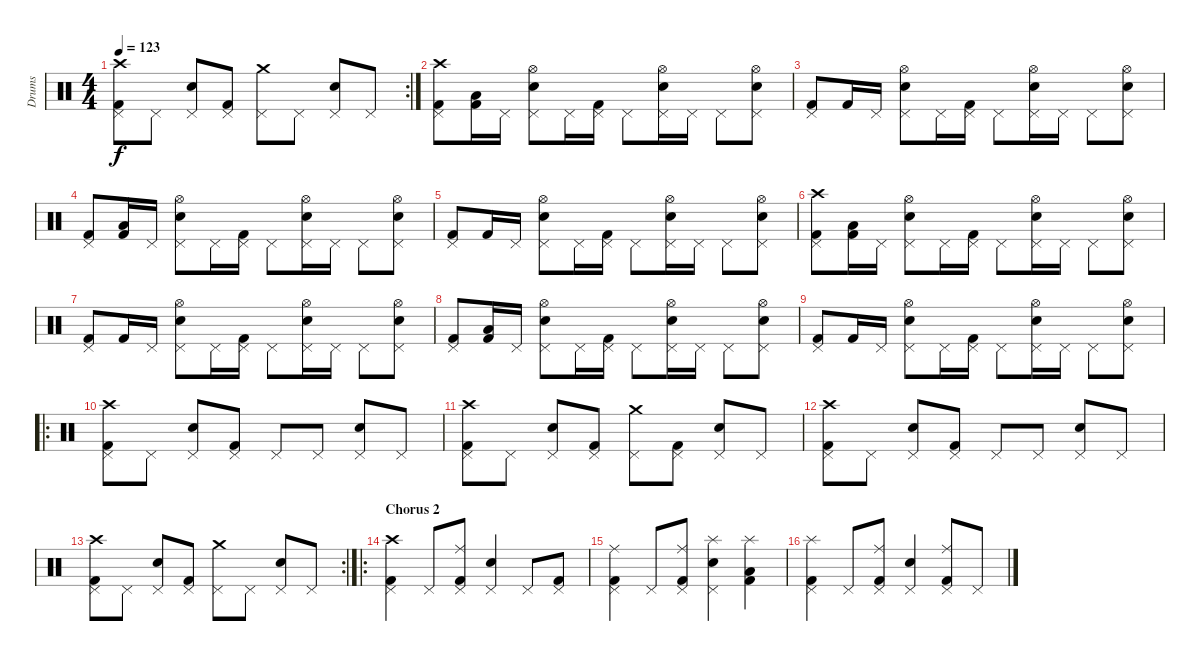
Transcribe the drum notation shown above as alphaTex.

\track ("Drums" "Drums") {instrument percussion}
\staff {score}
\articulation defaults
\rc 2
\ts (4 4)
\tempo 123
\clef neutral
\ks c
("Kick (hit) 2" "Pedal Hi-Hat (hit)" "Crash high (hit)").8{dy f} "Pedal Hi-Hat (hit)".8 ("Snare (hit) 2" "Pedal Hi-Hat (hit)").8 ("Kick (hit) 2" "Pedal Hi-Hat (hit)").8 ("Pedal Hi-Hat (hit)" "Crash medium (hit)").8 "Pedal Hi-Hat (hit)".8 ("Snare (hit) 2" "Pedal Hi-Hat (hit)").8 "Pedal Hi-Hat (hit)".8 |
("Kick (hit) 2" "Pedal Hi-Hat (hit)" "Crash high (hit)").8 ("Kick (hit) 2" "Low Tom (hit)").16 "Pedal Hi-Hat (hit)".16 ("Snare (hit) 2" "Pedal Hi-Hat (hit)" "Hi-Hat (open)").8 "Pedal Hi-Hat (hit)".16 ("Kick (hit) 2" "Pedal Hi-Hat (hit)").16 "Pedal Hi-Hat (hit)".8 ("Snare (hit) 2" "Pedal Hi-Hat (hit)" "Hi-Hat (open)").16 "Pedal Hi-Hat (hit)".16 "Pedal Hi-Hat (hit)".8 ("Snare (hit) 2" "Pedal Hi-Hat (hit)" "Hi-Hat (open)").8 |
("Kick (hit) 2" "Pedal Hi-Hat (hit)").8 "Kick (hit) 2".16 "Pedal Hi-Hat (hit)".16 ("Snare (hit) 2" "Pedal Hi-Hat (hit)" "Hi-Hat (open)").8 "Pedal Hi-Hat (hit)".16 ("Kick (hit) 2" "Pedal Hi-Hat (hit)").16 "Pedal Hi-Hat (hit)".8 ("Snare (hit) 2" "Pedal Hi-Hat (hit)" "Hi-Hat (open)").16 "Pedal Hi-Hat (hit)".16 "Pedal Hi-Hat (hit)".8 ("Snare (hit) 2" "Pedal Hi-Hat (hit)" "Hi-Hat (open)").8 |
("Kick (hit) 2" "Pedal Hi-Hat (hit)").8 ("Kick (hit) 2" "Low Tom (hit)").16 "Pedal Hi-Hat (hit)".16 ("Snare (hit) 2" "Pedal Hi-Hat (hit)" "Hi-Hat (open)").8 "Pedal Hi-Hat (hit)".16 ("Kick (hit) 2" "Pedal Hi-Hat (hit)").16 "Pedal Hi-Hat (hit)".8 ("Snare (hit) 2" "Pedal Hi-Hat (hit)" "Hi-Hat (open)").16 "Pedal Hi-Hat (hit)".16 "Pedal Hi-Hat (hit)".8 ("Snare (hit) 2" "Pedal Hi-Hat (hit)" "Hi-Hat (open)").8 |
("Kick (hit) 2" "Pedal Hi-Hat (hit)").8 "Kick (hit) 2".16 "Pedal Hi-Hat (hit)".16 ("Snare (hit) 2" "Pedal Hi-Hat (hit)" "Hi-Hat (open)").8 "Pedal Hi-Hat (hit)".16 ("Kick (hit) 2" "Pedal Hi-Hat (hit)").16 "Pedal Hi-Hat (hit)".8 ("Snare (hit) 2" "Pedal Hi-Hat (hit)" "Hi-Hat (open)").16 "Pedal Hi-Hat (hit)".16 "Pedal Hi-Hat (hit)".8 ("Snare (hit) 2" "Pedal Hi-Hat (hit)" "Hi-Hat (open)").8 |
("Kick (hit) 2" "Pedal Hi-Hat (hit)" "Crash high (hit)").8 ("Kick (hit) 2" "Low Tom (hit)").16 "Pedal Hi-Hat (hit)".16 ("Snare (hit) 2" "Pedal Hi-Hat (hit)" "Hi-Hat (open)").8 "Pedal Hi-Hat (hit)".16 ("Kick (hit) 2" "Pedal Hi-Hat (hit)").16 "Pedal Hi-Hat (hit)".8 ("Snare (hit) 2" "Pedal Hi-Hat (hit)" "Hi-Hat (open)").16 "Pedal Hi-Hat (hit)".16 "Pedal Hi-Hat (hit)".8 ("Snare (hit) 2" "Pedal Hi-Hat (hit)" "Hi-Hat (open)").8 |
("Kick (hit) 2" "Pedal Hi-Hat (hit)").8 "Kick (hit) 2".16 "Pedal Hi-Hat (hit)".16 ("Snare (hit) 2" "Pedal Hi-Hat (hit)" "Hi-Hat (open)").8 "Pedal Hi-Hat (hit)".16 ("Kick (hit) 2" "Pedal Hi-Hat (hit)").16 "Pedal Hi-Hat (hit)".8 ("Snare (hit) 2" "Pedal Hi-Hat (hit)" "Hi-Hat (open)").16 "Pedal Hi-Hat (hit)".16 "Pedal Hi-Hat (hit)".8 ("Snare (hit) 2" "Pedal Hi-Hat (hit)" "Hi-Hat (open)").8 |
("Kick (hit) 2" "Pedal Hi-Hat (hit)").8 ("Kick (hit) 2" "Low Tom (hit)").16 "Pedal Hi-Hat (hit)".16 ("Snare (hit) 2" "Pedal Hi-Hat (hit)" "Hi-Hat (open)").8 "Pedal Hi-Hat (hit)".16 ("Kick (hit) 2" "Pedal Hi-Hat (hit)").16 "Pedal Hi-Hat (hit)".8 ("Snare (hit) 2" "Pedal Hi-Hat (hit)" "Hi-Hat (open)").16 "Pedal Hi-Hat (hit)".16 "Pedal Hi-Hat (hit)".8 ("Snare (hit) 2" "Pedal Hi-Hat (hit)" "Hi-Hat (open)").8 |
("Kick (hit) 2" "Pedal Hi-Hat (hit)").8 "Kick (hit) 2".16 "Pedal Hi-Hat (hit)".16 ("Snare (hit) 2" "Pedal Hi-Hat (hit)" "Hi-Hat (open)").8 "Pedal Hi-Hat (hit)".16 ("Kick (hit) 2" "Pedal Hi-Hat (hit)").16 "Pedal Hi-Hat (hit)".8 ("Snare (hit) 2" "Pedal Hi-Hat (hit)" "Hi-Hat (open)").16 "Pedal Hi-Hat (hit)".16 "Pedal Hi-Hat (hit)".8 ("Snare (hit) 2" "Pedal Hi-Hat (hit)" "Hi-Hat (open)").8 |
\ro
("Kick (hit) 2" "Pedal Hi-Hat (hit)" "Crash high (hit)").8 "Pedal Hi-Hat (hit)".8 ("Snare (hit) 2" "Pedal Hi-Hat (hit)").8 ("Kick (hit) 2" "Pedal Hi-Hat (hit)").8 "Pedal Hi-Hat (hit)".8 "Pedal Hi-Hat (hit)".8 ("Snare (hit) 2" "Pedal Hi-Hat (hit)").8 "Pedal Hi-Hat (hit)".8 |
("Kick (hit) 2" "Pedal Hi-Hat (hit)" "Crash high (hit)").8 "Pedal Hi-Hat (hit)".8 ("Snare (hit) 2" "Pedal Hi-Hat (hit)").8 ("Kick (hit) 2" "Pedal Hi-Hat (hit)").8 ("Pedal Hi-Hat (hit)" "Crash medium (hit)").8 ("Kick (hit) 2" "Pedal Hi-Hat (hit)").8 ("Snare (hit) 2" "Pedal Hi-Hat (hit)").8 "Pedal Hi-Hat (hit)".8 |
("Kick (hit) 2" "Pedal Hi-Hat (hit)" "Crash high (hit)").8 "Pedal Hi-Hat (hit)".8 ("Snare (hit) 2" "Pedal Hi-Hat (hit)").8 ("Kick (hit) 2" "Pedal Hi-Hat (hit)").8 "Pedal Hi-Hat (hit)".8 "Pedal Hi-Hat (hit)".8 ("Snare (hit) 2" "Pedal Hi-Hat (hit)").8 "Pedal Hi-Hat (hit)".8 |
\rc 2
("Kick (hit) 2" "Pedal Hi-Hat (hit)" "Crash high (hit)").8 "Pedal Hi-Hat (hit)".8 ("Snare (hit) 2" "Pedal Hi-Hat (hit)").8 ("Kick (hit) 2" "Pedal Hi-Hat (hit)").8 ("Pedal Hi-Hat (hit)" "Crash medium (hit)").8 "Pedal Hi-Hat (hit)".8 ("Snare (hit) 2" "Pedal Hi-Hat (hit)").8 "Pedal Hi-Hat (hit)".8 |
\ro
\section ("" "Chorus 2")
("Kick (hit) 2" "Pedal Hi-Hat (hit)" "Crash high (hit)").4 "Pedal Hi-Hat (hit)".8 ("Kick (hit) 2" "Pedal Hi-Hat (hit)" "Ride (middle)").8 ("Snare (hit) 2" "Pedal Hi-Hat (hit)").4 "Pedal Hi-Hat (hit)".8 ("Kick (hit) 2" "Pedal Hi-Hat (hit)").8 |
("Kick (hit) 2" "Pedal Hi-Hat (hit)" "Ride (middle)").4 "Pedal Hi-Hat (hit)".8 ("Kick (hit) 2" "Pedal Hi-Hat (hit)" "Ride (middle)").8 ("Snare (hit) 2" "Pedal Hi-Hat (hit)" "Splash (hit)").4 ("Kick (hit) 2" "Low Tom (hit)" "Splash (hit)").4 |
("Kick (hit) 2" "Pedal Hi-Hat (hit)" "Splash (hit)").4 "Pedal Hi-Hat (hit)".8 ("Kick (hit) 2" "Pedal Hi-Hat (hit)" "Ride (middle)").8 ("Snare (hit) 2" "Pedal Hi-Hat (hit)").4 ("Kick (hit) 2" "Pedal Hi-Hat (hit)" "Ride (middle)").8 "Pedal Hi-Hat (hit)".8
